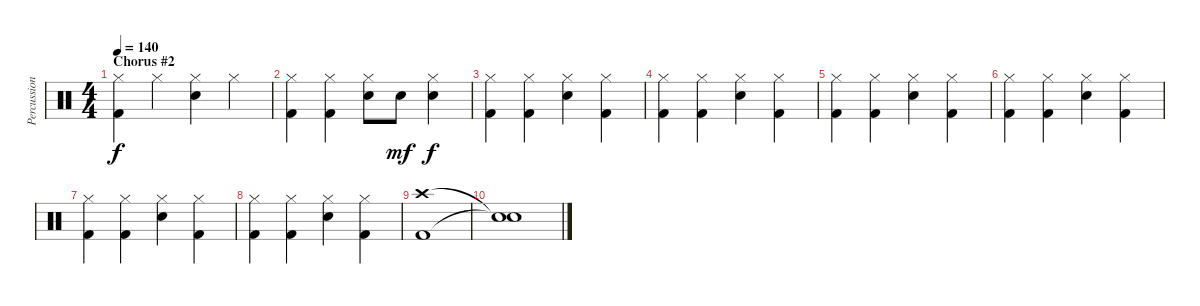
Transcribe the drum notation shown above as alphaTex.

\track ("Percussion" "Percussion") {instrument percussion}
\staff {score}
\articulation defaults
\ts (4 4)
\section ("" "Chorus #2")
\tempo 140
\clef neutral
\ks c
("Hi-Hat (closed)" "Kick (hit) 2").4{dy f} "Hi-Hat (closed)".4 ("Hi-Hat (closed)" "Electric Snare (hit)").4 "Hi-Hat (closed)".4 |
("Hi-Hat (closed)" "Kick (hit) 2").4 ("Hi-Hat (closed)" "Kick (hit) 2").4 ("Hi-Hat (closed)" "Electric Snare (hit)").8 "Electric Snare (hit)".8{dy mf} ("Hi-Hat (closed)" "Electric Snare (hit)").4{dy f} |
("Hi-Hat (closed)" "Kick (hit) 2").4 ("Hi-Hat (closed)" "Kick (hit) 2").4 ("Hi-Hat (closed)" "Electric Snare (hit)").4 ("Hi-Hat (closed)" "Kick (hit) 2").4 |
("Hi-Hat (closed)" "Kick (hit) 2").4 ("Hi-Hat (closed)" "Kick (hit) 2").4 ("Hi-Hat (closed)" "Electric Snare (hit)").4 ("Hi-Hat (closed)" "Kick (hit) 2").4 |
("Hi-Hat (closed)" "Kick (hit) 2").4 ("Hi-Hat (closed)" "Kick (hit) 2").4 ("Hi-Hat (closed)" "Electric Snare (hit)").4 ("Hi-Hat (closed)" "Kick (hit) 2").4 |
("Hi-Hat (closed)" "Kick (hit) 2").4 ("Hi-Hat (closed)" "Kick (hit) 2").4 ("Hi-Hat (closed)" "Electric Snare (hit)").4 ("Hi-Hat (closed)" "Kick (hit) 2").4 |
("Hi-Hat (closed)" "Kick (hit) 2").4 ("Hi-Hat (closed)" "Kick (hit) 2").4 ("Hi-Hat (closed)" "Electric Snare (hit)").4 ("Hi-Hat (closed)" "Kick (hit) 2").4 |
("Hi-Hat (closed)" "Kick (hit) 2").4 ("Hi-Hat (closed)" "Kick (hit) 2").4 ("Hi-Hat (closed)" "Electric Snare (hit)").4 ("Hi-Hat (closed)" "Kick (hit) 2").4 |
("Crash high (hit)" "Kick (hit) 2").1 |
("Snare (hit)"{t} "Snare (hit)"{t}).1
